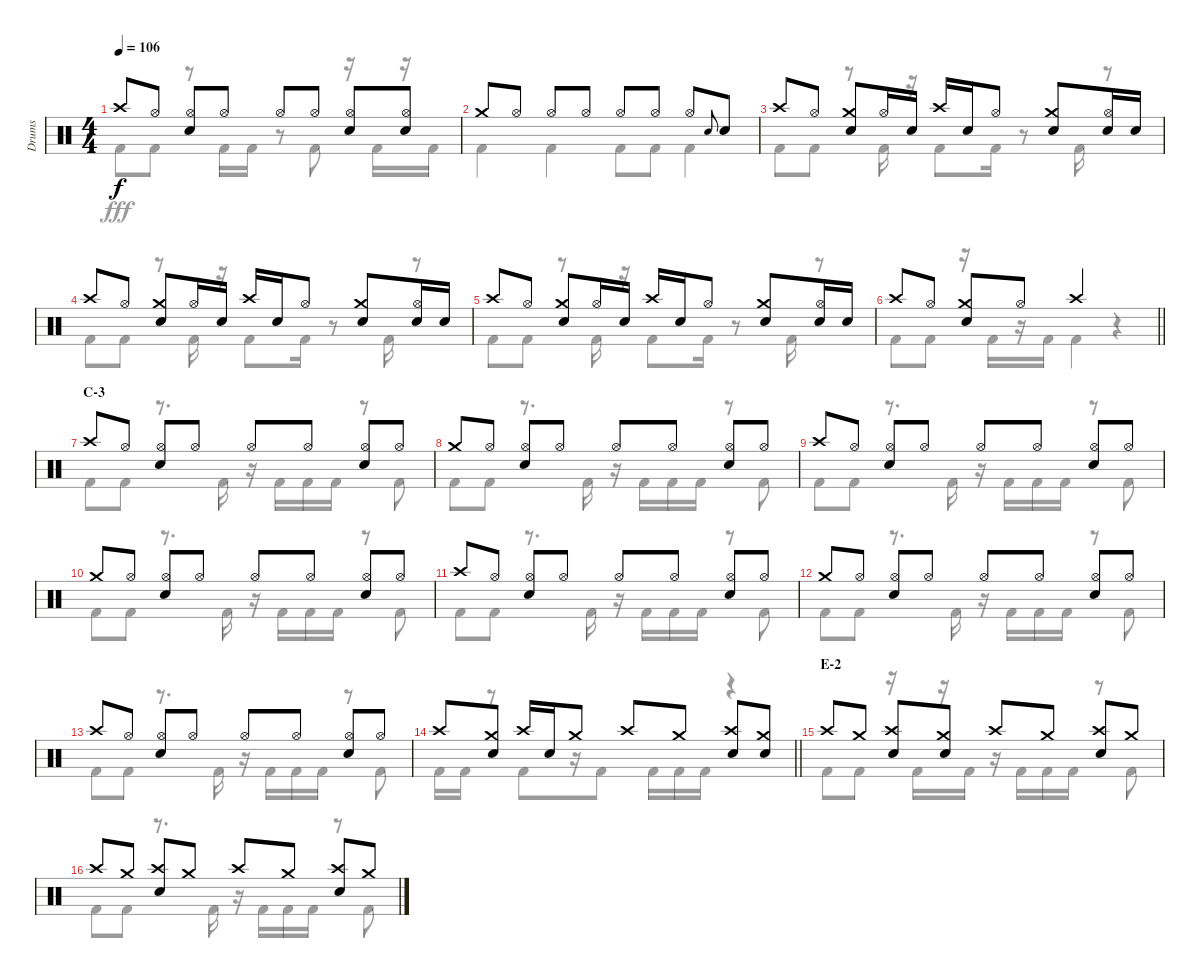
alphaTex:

\track ("Drums" "Drums") {instrument percussion}
\staff {score}
\articulation defaults
\voice
\ts (4 4)
\tempo 106
\clef neutral
\ks c "Crash high (hit)".8{dy f} "Hi-Hat (open)".8
("Hi-Hat (open)" "Snare (hit) 2").8 "Hi-Hat (open)".8 "Hi-Hat (open)".8 "Hi-Hat (open)".8 ("Hi-Hat (open)" "Snare (hit) 2").8 ("Hi-Hat (open)" "Snare (hit) 2").8 |
"Crash medium (hit)".8 "Hi-Hat (open)".8 "Hi-Hat (open)".8 "Hi-Hat (open)".8 "Hi-Hat (open)".8 "Hi-Hat (open)".8 "Hi-Hat (open)".8 "Snare (hit) 2".8{gr onbeat} "Snare (hit) 2".8 |
"Crash high (hit)".8 "Hi-Hat (open)".8 ("Crash medium (hit)" "Snare (hit) 2").8 "Hi-Hat (open)".16 "Snare (hit) 2".16 "Crash high (hit)".16 "Snare (hit) 2".16 "Hi-Hat (open)".8 ("Crash medium (hit)" "Snare (hit) 2").8 ("Hi-Hat (open)" "Snare (hit) 2").16 "Snare (hit) 2".16 |
"Crash high (hit)".8 "Hi-Hat (open)".8 ("Crash medium (hit)" "Snare (hit) 2").8 "Hi-Hat (open)".16 "Snare (hit) 2".16 "Crash high (hit)".16 "Snare (hit) 2".16 "Hi-Hat (open)".8 ("Crash medium (hit)" "Snare (hit) 2").8 ("Hi-Hat (open)" "Snare (hit) 2").16 "Snare (hit) 2".16 |
"Crash high (hit)".8 "Hi-Hat (open)".8 ("Crash medium (hit)" "Snare (hit) 2").8 "Hi-Hat (open)".16 "Snare (hit) 2".16 "Crash high (hit)".16 "Snare (hit) 2".16 "Hi-Hat (open)".8 ("Crash medium (hit)" "Snare (hit) 2").8 ("Hi-Hat (open)" "Snare (hit) 2").16 "Snare (hit) 2".16 |
\barLineRight lightlight "Crash high (hit)".8 "Hi-Hat (open)".8
("Crash medium (hit)" "Snare (hit) 2").8 "Hi-Hat (open)".8 "Crash high (hit)".2 |
\section ("" "C-3")
"Crash high (hit)".8 "Hi-Hat (open)".8 ("Hi-Hat (open)" "Snare (hit) 2").8 "Hi-Hat (open)".8 "Hi-Hat (open)".8 "Hi-Hat (open)".8 ("Hi-Hat (open)" "Snare (hit) 2").8 "Hi-Hat (open)".8 |
"Crash medium (hit)".8 "Hi-Hat (open)".8 ("Hi-Hat (open)" "Snare (hit) 2").8 "Hi-Hat (open)".8 "Hi-Hat (open)".8 "Hi-Hat (open)".8 ("Hi-Hat (open)" "Snare (hit) 2").8 "Hi-Hat (open)".8 |
"Crash high (hit)".8 "Hi-Hat (open)".8 ("Hi-Hat (open)" "Snare (hit) 2").8 "Hi-Hat (open)".8 "Hi-Hat (open)".8 "Hi-Hat (open)".8 ("Hi-Hat (open)" "Snare (hit) 2").8 "Hi-Hat (open)".8 |
"Crash medium (hit)".8 "Hi-Hat (open)".8 ("Hi-Hat (open)" "Snare (hit) 2").8 "Hi-Hat (open)".8 "Hi-Hat (open)".8 "Hi-Hat (open)".8 ("Hi-Hat (open)" "Snare (hit) 2").8 "Hi-Hat (open)".8 |
"Crash high (hit)".8 "Hi-Hat (open)".8 ("Hi-Hat (open)" "Snare (hit) 2").8 "Hi-Hat (open)".8 "Hi-Hat (open)".8 "Hi-Hat (open)".8 ("Hi-Hat (open)" "Snare (hit) 2").8 "Hi-Hat (open)".8 |
"Crash medium (hit)".8 "Hi-Hat (open)".8 ("Hi-Hat (open)" "Snare (hit) 2").8 "Hi-Hat (open)".8 "Hi-Hat (open)".8 "Hi-Hat (open)".8 ("Hi-Hat (open)" "Snare (hit) 2").8 "Hi-Hat (open)".8 |
"Crash high (hit)".8 "Hi-Hat (open)".8 ("Hi-Hat (open)" "Snare (hit) 2").8 "Hi-Hat (open)".8 "Hi-Hat (open)".8 "Hi-Hat (open)".8 ("Hi-Hat (open)" "Snare (hit) 2").8 "Hi-Hat (open)".8 |
\barLineRight lightlight "Crash high (hit)".8
("Crash medium (hit)" "Snare (hit) 2").8 "Crash high (hit)".16 "Snare (hit) 2".16 "Crash medium (hit)".8 "Crash high (hit)".8 "Crash medium (hit)".8 ("Crash high (hit)" "Snare (hit) 2").8 ("Crash medium (hit)" "Snare (hit) 2").8 |
\section ("" "E-2")
"Crash high (hit)".8 "Crash medium (hit)".8 ("Crash high (hit)" "Snare (hit) 2").8 ("Crash medium (hit)" "Snare (hit) 2").8 "Crash high (hit)".8 "Crash medium (hit)".8 ("Crash high (hit)" "Snare (hit) 2").8 "Crash medium (hit)".8 |
"Crash high (hit)".8 "Crash medium (hit)".8 ("Crash high (hit)" "Snare (hit) 2").8 "Crash medium (hit)".8 "Crash high (hit)".8 "Crash medium (hit)".8 ("Crash high (hit)" "Snare (hit) 2").8 "Crash medium (hit)".8
\voice
\clef neutral
\ottava regular
\simile none
\ks c "Kick (hit) 2".8{dy fff} "Kick (hit) 2".8
r.8 "Kick (hit) 2".16 "Kick (hit) 2".16 r.8 "Kick (hit) 2".8 r.16 "Kick (hit) 2".16 r.16 "Kick (hit) 2".16 |
"Kick (hit) 2".4 "Kick (hit) 2".4 "Kick (hit) 2".8 "Kick (hit) 2".8 "Kick (hit) 2".4 |
"Kick (hit) 2".8 "Kick (hit) 2".8 r.8 "Kick (hit) 2".16 r.16 "Kick (hit) 2".8 "Kick (hit) 2".16 r.8 "Kick (hit) 2".16 r.8 |
"Kick (hit) 2".8 "Kick (hit) 2".8 r.8 "Kick (hit) 2".16 r.16 "Kick (hit) 2".8 "Kick (hit) 2".16 r.8 "Kick (hit) 2".16 r.8 |
"Kick (hit) 2".8 "Kick (hit) 2".8 r.8 "Kick (hit) 2".16 r.16 "Kick (hit) 2".8 "Kick (hit) 2".16 r.8 "Kick (hit) 2".16 r.8 |
\barLineRight lightlight "Kick (hit) 2".8 "Kick (hit) 2".8
r.16 "Kick (hit) 2".16 r.16 "Kick (hit) 2".16 "Kick (hit) 2".4 r.4 |
"Kick (hit) 2".8 "Kick (hit) 2".8 r.8{d} "Kick (hit) 2".16 r.16 "Kick (hit) 2".16 "Kick (hit) 2".16 "Kick (hit) 2".16 r.8 "Kick (hit) 2".8 |
"Kick (hit) 2".8 "Kick (hit) 2".8 r.8{d} "Kick (hit) 2".16 r.16 "Kick (hit) 2".16 "Kick (hit) 2".16 "Kick (hit) 2".16 r.8 "Kick (hit) 2".8 |
"Kick (hit) 2".8 "Kick (hit) 2".8 r.8{d} "Kick (hit) 2".16 r.16 "Kick (hit) 2".16 "Kick (hit) 2".16 "Kick (hit) 2".16 r.8 "Kick (hit) 2".8 |
"Kick (hit) 2".8 "Kick (hit) 2".8 r.8{d} "Kick (hit) 2".16 r.16 "Kick (hit) 2".16 "Kick (hit) 2".16 "Kick (hit) 2".16 r.8 "Kick (hit) 2".8 |
"Kick (hit) 2".8 "Kick (hit) 2".8 r.8{d} "Kick (hit) 2".16 r.16 "Kick (hit) 2".16 "Kick (hit) 2".16 "Kick (hit) 2".16 r.8 "Kick (hit) 2".8 |
"Kick (hit) 2".8 "Kick (hit) 2".8 r.8{d} "Kick (hit) 2".16 r.16 "Kick (hit) 2".16 "Kick (hit) 2".16 "Kick (hit) 2".16 r.8 "Kick (hit) 2".8 |
"Kick (hit) 2".8 "Kick (hit) 2".8 r.8{d} "Kick (hit) 2".16 r.16 "Kick (hit) 2".16 "Kick (hit) 2".16 "Kick (hit) 2".16 r.8 "Kick (hit) 2".8 |
\barLineRight lightlight "Kick (hit) 2".16 "Kick (hit) 2".16
r.8 "Kick (hit) 2".8 r.16 "Kick (hit) 2".8 "Kick (hit) 2".16 "Kick (hit) 2".16 "Kick (hit) 2".16 r.4 |
"Kick (hit) 2".8 "Kick (hit) 2".8 r.16 "Kick (hit) 2".16 r.16 "Kick (hit) 2".16 r.16 "Kick (hit) 2".16 "Kick (hit) 2".16 "Kick (hit) 2".16 r.8 "Kick (hit) 2".8 |
"Kick (hit) 2".8 "Kick (hit) 2".8 r.8{d} "Kick (hit) 2".16 r.16 "Kick (hit) 2".16 "Kick (hit) 2".16 "Kick (hit) 2".16 r.8 "Kick (hit) 2".8
